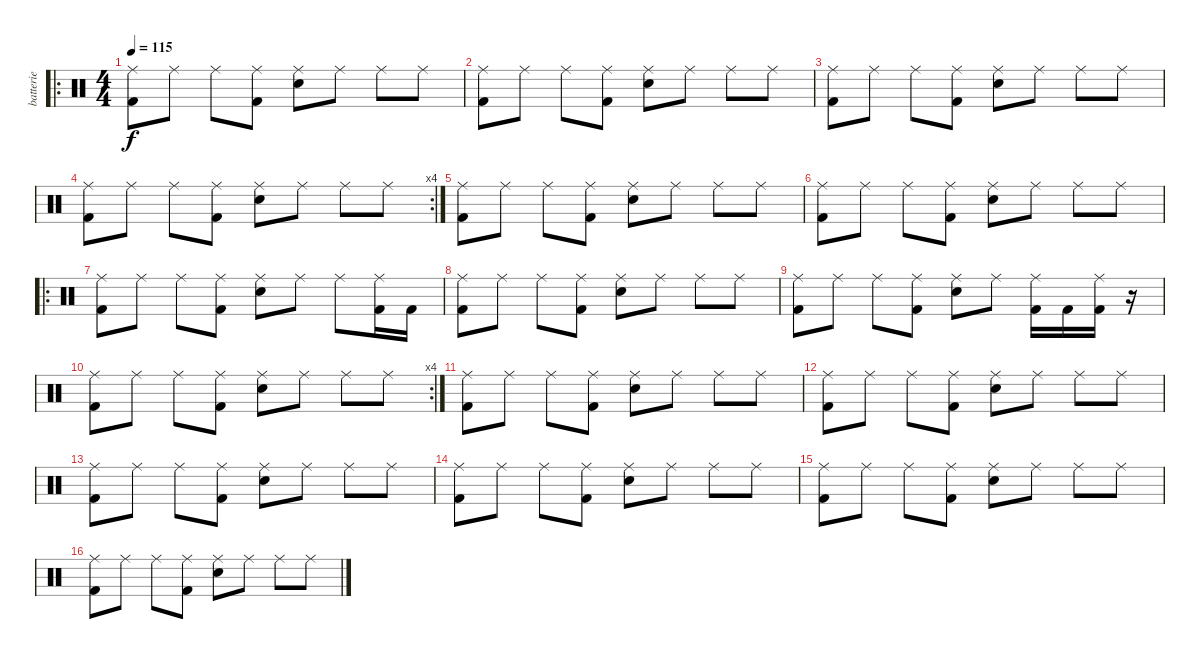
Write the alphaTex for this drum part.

\track ("batterie" "batterie") {instrument percussion}
\staff {score}
\articulation defaults
\ro
\ts (4 4)
\tempo 115
\clef neutral
\ks c
("Ride (middle)" "Kick (hit) 2").8{dy f} "Ride (middle)".8 "Ride (middle)".8 ("Ride (middle)" "Kick (hit) 2").8 ("Ride (middle)" "Electric Snare (hit)").8 "Ride (middle)".8 "Ride (middle)".8 "Ride (middle)".8 |
("Ride (middle)" "Kick (hit) 2").8 "Ride (middle)".8 "Ride (middle)".8 ("Ride (middle)" "Kick (hit) 2").8 ("Ride (middle)" "Electric Snare (hit)").8 "Ride (middle)".8 "Ride (middle)".8 "Ride (middle)".8 |
("Ride (middle)" "Kick (hit) 2").8 "Ride (middle)".8 "Ride (middle)".8 ("Ride (middle)" "Kick (hit) 2").8 ("Ride (middle)" "Electric Snare (hit)").8 "Ride (middle)".8 "Ride (middle)".8 "Ride (middle)".8 |
\rc 4
("Ride (middle)" "Kick (hit) 2").8 "Ride (middle)".8 "Ride (middle)".8 ("Ride (middle)" "Kick (hit) 2").8 ("Ride (middle)" "Electric Snare (hit)").8 "Ride (middle)".8 "Ride (middle)".8 "Ride (middle)".8 |
("Ride (middle)" "Kick (hit) 2").8 "Ride (middle)".8 "Ride (middle)".8 ("Ride (middle)" "Kick (hit) 2").8 ("Ride (middle)" "Electric Snare (hit)").8 "Ride (middle)".8 "Ride (middle)".8 "Ride (middle)".8 |
("Ride (middle)" "Kick (hit) 2").8 "Ride (middle)".8 "Ride (middle)".8 ("Ride (middle)" "Kick (hit) 2").8 ("Ride (middle)" "Electric Snare (hit)").8 "Ride (middle)".8 "Ride (middle)".8 "Ride (middle)".8 |
\ro
("Ride (middle)" "Kick (hit) 2").8 "Ride (middle)".8 "Ride (middle)".8 ("Ride (middle)" "Kick (hit) 2").8 ("Ride (middle)" "Electric Snare (hit)").8 "Ride (middle)".8 "Ride (middle)".8 ("Ride (middle)" "Kick (hit) 2").16 "Kick (hit) 2".16 |
("Ride (middle)" "Kick (hit) 2").8 "Ride (middle)".8 "Ride (middle)".8 ("Ride (middle)" "Kick (hit) 2").8 ("Ride (middle)" "Electric Snare (hit)").8 "Ride (middle)".8 "Ride (middle)".8 "Ride (middle)".8 |
("Ride (middle)" "Kick (hit) 2").8 "Ride (middle)".8 "Ride (middle)".8 ("Ride (middle)" "Kick (hit) 2").8 ("Ride (middle)" "Electric Snare (hit)").8 "Ride (middle)".8 ("Ride (middle)" "Kick (hit) 2").16 "Kick (hit) 2".16 ("Ride (middle)" "Kick (hit) 2").16 r.16 |
\rc 4
("Ride (middle)" "Kick (hit) 2").8 "Ride (middle)".8 "Ride (middle)".8 ("Ride (middle)" "Kick (hit) 2").8 ("Ride (middle)" "Electric Snare (hit)").8 "Ride (middle)".8 "Ride (middle)".8 "Ride (middle)".8 |
("Ride (middle)" "Kick (hit) 2").8 "Ride (middle)".8 "Ride (middle)".8 ("Ride (middle)" "Kick (hit) 2").8 ("Ride (middle)" "Electric Snare (hit)").8 "Ride (middle)".8 "Ride (middle)".8 "Ride (middle)".8 |
("Ride (middle)" "Kick (hit) 2").8 "Ride (middle)".8 "Ride (middle)".8 ("Ride (middle)" "Kick (hit) 2").8 ("Ride (middle)" "Electric Snare (hit)").8 "Ride (middle)".8 "Ride (middle)".8 "Ride (middle)".8 |
("Ride (middle)" "Kick (hit) 2").8 "Ride (middle)".8 "Ride (middle)".8 ("Ride (middle)" "Kick (hit) 2").8 ("Ride (middle)" "Electric Snare (hit)").8 "Ride (middle)".8 "Ride (middle)".8 "Ride (middle)".8 |
("Ride (middle)" "Kick (hit) 2").8 "Ride (middle)".8 "Ride (middle)".8 ("Ride (middle)" "Kick (hit) 2").8 ("Ride (middle)" "Electric Snare (hit)").8 "Ride (middle)".8 "Ride (middle)".8 "Ride (middle)".8 |
("Ride (middle)" "Kick (hit) 2").8 "Ride (middle)".8 "Ride (middle)".8 ("Ride (middle)" "Kick (hit) 2").8 ("Ride (middle)" "Electric Snare (hit)").8 "Ride (middle)".8 "Ride (middle)".8 "Ride (middle)".8 |
("Ride (middle)" "Kick (hit) 2").8 "Ride (middle)".8 "Ride (middle)".8 ("Ride (middle)" "Kick (hit) 2").8 ("Ride (middle)" "Electric Snare (hit)").8 "Ride (middle)".8 "Ride (middle)".8 "Ride (middle)".8
